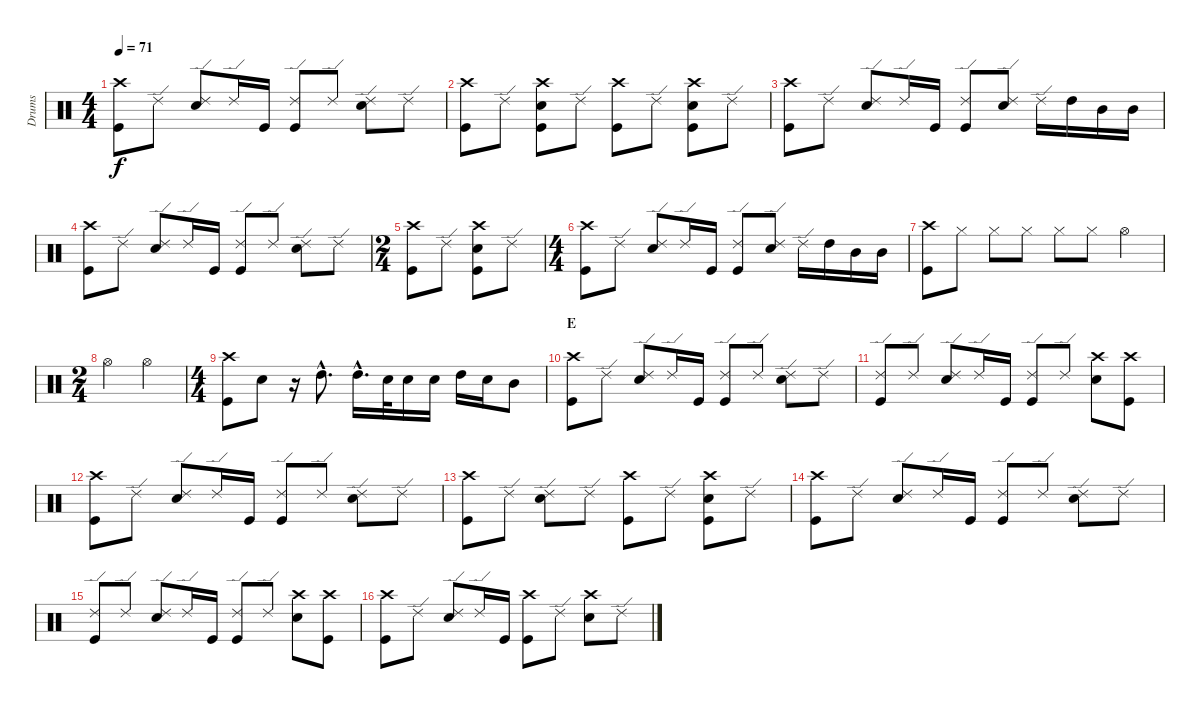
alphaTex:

\track ("Drums" "Drums") {instrument percussion}
\staff {score}
\articulation defaults
\ts (4 4)
\tempo 71
\clef neutral
\ks c
("Crash high (hit)" "Kick (hit)").8{dy f} "Ride (edge) 2".8 ("Ride (edge) 2" "Snare (hit) 2").8 "Ride (edge) 2".16 "Kick (hit)".16 ("Ride (edge) 2" "Kick (hit)").8 "Ride (edge) 2".8 ("Ride (edge) 2" "Snare (hit) 2").8 "Ride (edge) 2".8 |
("Crash high (hit)" "Kick (hit)").8 "Ride (edge) 2".8 ("Crash high (hit)" "Snare (hit) 2" "Kick (hit)").8 "Ride (edge) 2".8 ("Crash high (hit)" "Kick (hit)").8 "Ride (edge) 2".8 ("Crash high (hit)" "Snare (hit) 2" "Kick (hit)").8 "Ride (edge) 2".8 |
("Crash high (hit)" "Kick (hit)").8 "Ride (edge) 2".8 ("Ride (edge) 2" "Snare (hit) 2").8 "Ride (edge) 2".16 "Kick (hit)".16 ("Ride (edge) 2" "Kick (hit)").8 ("Ride (edge) 2" "Snare (hit) 2").8 "Ride (edge) 2".16 "High Tom (hit)".16 "Mid Tom (hit)".16 "Mid Tom (hit)".16 |
("Crash high (hit)" "Kick (hit)").8 "Ride (edge) 2".8 ("Ride (edge) 2" "Snare (hit) 2").8 "Ride (edge) 2".16 "Kick (hit)".16 ("Ride (edge) 2" "Kick (hit)").8 "Ride (edge) 2".8 ("Ride (edge) 2" "Snare (hit) 2").8 "Ride (edge) 2".8 |
\ts (2 4)
("Crash high (hit)" "Kick (hit)").8 "Ride (edge) 2".8 ("Crash high (hit)" "Snare (hit) 2" "Kick (hit)").8 "Ride (edge) 2".8 |
\ts (4 4)
("Crash high (hit)" "Kick (hit)").8 "Ride (edge) 2".8 ("Ride (edge) 2" "Snare (hit) 2").8 "Ride (edge) 2".16 "Kick (hit)".16 ("Ride (edge) 2" "Kick (hit)").8 ("Ride (edge) 2" "Snare (hit) 2").8 "Ride (edge) 2".16 "High Tom (hit)".16 "Mid Tom (hit)".16 "Mid Tom (hit)".16 |
("Crash high (hit)" "Kick (hit)").8 "Hi-Hat (closed)".8 "Hi-Hat (closed)".8 "Hi-Hat (closed)".8 "Hi-Hat (closed)".8 "Hi-Hat (closed)".8 "Hi-Hat (open)".4 |
\ts (2 4)
"Hi-Hat (open)".4 "Hi-Hat (open)".4 |
\ts (4 4)
("Crash high (hit)" "Kick (hit)").8 "Snare (hit) 2".8 r.16 "High Tom (hit)"{hac}.8{d} "High Tom (hit)"{hac}.16{d} "Snare (hit) 2".32 "Snare (hit) 2".16 "Snare (hit) 2".16 "High Tom (hit)".16 "Snare (hit) 2".16 "Mid Tom (hit)".8 |
\section ("" "E")
("Crash high (hit)" "Kick (hit)").8 "Ride (edge) 2".8 ("Ride (edge) 2" "Snare (hit) 2").8 "Ride (edge) 2".16 "Kick (hit)".16 ("Ride (edge) 2" "Kick (hit)").8 "Ride (edge) 2".8 ("Ride (edge) 2" "Snare (hit) 2").8 "Ride (edge) 2".8 |
("Ride (edge) 2" "Kick (hit)").8 "Ride (edge) 2".8 ("Ride (edge) 2" "Snare (hit) 2").8 "Ride (edge) 2".16 "Kick (hit)".16 ("Ride (edge) 2" "Kick (hit)").8 "Ride (edge) 2".8 ("Crash high (hit)" "Snare (hit) 2").8 ("Crash high (hit)" "Kick (hit)").8 |
("Crash high (hit)" "Kick (hit)").8 "Ride (edge) 2".8 ("Ride (edge) 2" "Snare (hit) 2").8 "Ride (edge) 2".16 "Kick (hit)".16 ("Ride (edge) 2" "Kick (hit)").8 "Ride (edge) 2".8 ("Ride (edge) 2" "Snare (hit) 2").8 "Ride (edge) 2".8 |
("Crash high (hit)" "Kick (hit)").8 "Ride (edge) 2".8 ("Ride (edge) 2" "Snare (hit) 2").8 "Ride (edge) 2".8 ("Crash high (hit)" "Kick (hit)").8 "Ride (edge) 2".8 ("Crash high (hit)" "Snare (hit) 2" "Kick (hit)").8 "Ride (edge) 2".8 |
("Crash high (hit)" "Kick (hit)").8 "Ride (edge) 2".8 ("Ride (edge) 2" "Snare (hit) 2").8 "Ride (edge) 2".16 "Kick (hit)".16 ("Ride (edge) 2" "Kick (hit)").8 "Ride (edge) 2".8 ("Ride (edge) 2" "Snare (hit) 2").8 "Ride (edge) 2".8 |
("Ride (edge) 2" "Kick (hit)").8 "Ride (edge) 2".8 ("Ride (edge) 2" "Snare (hit) 2").8 "Ride (edge) 2".16 "Kick (hit)".16 ("Ride (edge) 2" "Kick (hit)").8 "Ride (edge) 2".8 ("Crash high (hit)" "Snare (hit) 2").8 ("Crash high (hit)" "Kick (hit)").8 |
("Crash high (hit)" "Kick (hit)").8 "Ride (edge) 2".8 ("Ride (edge) 2" "Snare (hit) 2").8 "Ride (edge) 2".16 "Kick (hit)".16 ("Crash high (hit)" "Kick (hit)").8 "Ride (edge) 2".8 ("Crash high (hit)" "Snare (hit) 2").8 "Ride (edge) 2".8
